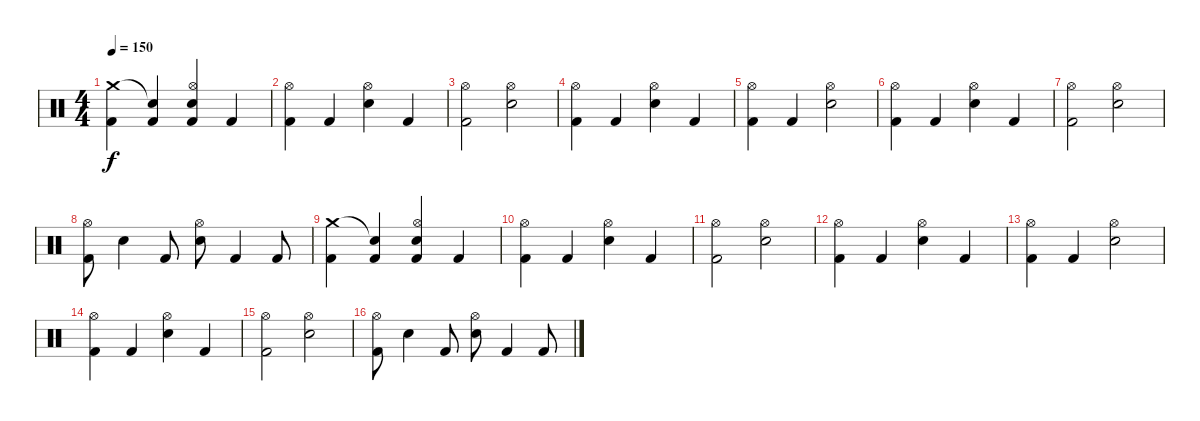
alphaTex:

\track (" " " ") {instrument percussion}
\staff {score}
\articulation defaults
\ts (4 4)
\tempo 150
\clef neutral
\ks c
("Crash medium (hit)" "Kick (hit) 2").4{dy f} ("Snare (hit)"{t} "Kick (hit) 2").4 ("Hi-Hat (open)" "Electric Snare (hit)" "Kick (hit) 2").4 "Kick (hit) 2".4 |
("Hi-Hat (open)" "Kick (hit) 2").4 "Kick (hit) 2".4 ("Hi-Hat (open)" "Electric Snare (hit)").4 "Kick (hit) 2".4 |
("Hi-Hat (open)" "Kick (hit) 2").2 ("Hi-Hat (open)" "Electric Snare (hit)").2 |
("Hi-Hat (open)" "Kick (hit) 2").4 "Kick (hit) 2".4 ("Hi-Hat (open)" "Electric Snare (hit)").4 "Kick (hit) 2".4 |
("Hi-Hat (open)" "Kick (hit) 2").4 "Kick (hit) 2".4 ("Hi-Hat (open)" "Electric Snare (hit)").2 |
("Hi-Hat (open)" "Kick (hit) 2").4 "Kick (hit) 2".4 ("Hi-Hat (open)" "Electric Snare (hit)").4 "Kick (hit) 2".4 |
("Hi-Hat (open)" "Kick (hit) 2").2 ("Hi-Hat (open)" "Electric Snare (hit)").2 |
("Hi-Hat (open)" "Kick (hit) 2").8 "Electric Snare (hit)".4 "Kick (hit) 2".8 ("Hi-Hat (open)" "Electric Snare (hit)").8 "Kick (hit) 2".4 "Kick (hit) 2".8 |
("Crash medium (hit)" "Kick (hit) 2").4 ("Snare (hit)"{t} "Kick (hit) 2").4 ("Hi-Hat (open)" "Electric Snare (hit)" "Kick (hit) 2").4 "Kick (hit) 2".4 |
("Hi-Hat (open)" "Kick (hit) 2").4 "Kick (hit) 2".4 ("Hi-Hat (open)" "Electric Snare (hit)").4 "Kick (hit) 2".4 |
("Hi-Hat (open)" "Kick (hit) 2").2 ("Hi-Hat (open)" "Electric Snare (hit)").2 |
("Hi-Hat (open)" "Kick (hit) 2").4 "Kick (hit) 2".4 ("Hi-Hat (open)" "Electric Snare (hit)").4 "Kick (hit) 2".4 |
("Hi-Hat (open)" "Kick (hit) 2").4 "Kick (hit) 2".4 ("Hi-Hat (open)" "Electric Snare (hit)").2 |
("Hi-Hat (open)" "Kick (hit) 2").4 "Kick (hit) 2".4 ("Hi-Hat (open)" "Electric Snare (hit)").4 "Kick (hit) 2".4 |
("Hi-Hat (open)" "Kick (hit) 2").2 ("Hi-Hat (open)" "Electric Snare (hit)").2 |
("Hi-Hat (open)" "Kick (hit) 2").8 "Electric Snare (hit)".4 "Kick (hit) 2".8 ("Hi-Hat (open)" "Electric Snare (hit)").8 "Kick (hit) 2".4 "Kick (hit) 2".8
